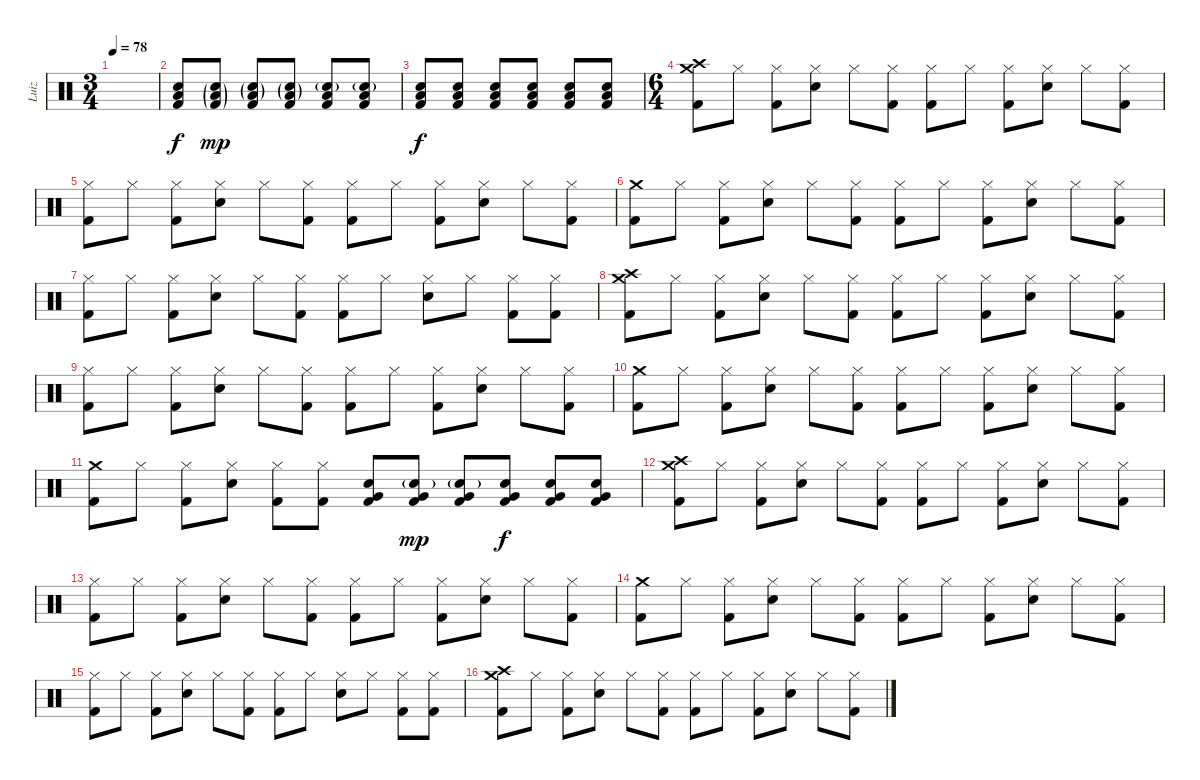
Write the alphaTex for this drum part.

\track ("Luiz" "Luiz") {instrument percussion}
\staff {score}
\articulation defaults
\ts (3 4)
\tempo 78
\clef neutral
\ks c
|
("Snare (hit) 2" "Low Tom (hit)" "Kick (hit) 2").8 ("Snare (hit) 2"{g} "Low Tom (hit)"{g} "Kick (hit) 2"{g}).8{dy mp} ("Snare (hit) 2"{g} "Low Tom (hit)"{g} "Kick (hit) 2").8 ("Snare (hit) 2"{g} "Low Tom (hit)"{g} "Kick (hit) 2").8 ("Snare (hit) 2"{g} "Low Tom (hit)" "Kick (hit) 2").8 ("Snare (hit) 2"{g} "Low Tom (hit)" "Kick (hit) 2").8 |
("Snare (hit) 2" "Low Tom (hit)" "Kick (hit) 2").8{dy f} ("Snare (hit) 2" "Low Tom (hit)" "Kick (hit) 2").8 ("Snare (hit) 2" "Low Tom (hit)" "Kick (hit) 2").8 ("Snare (hit) 2" "Low Tom (hit)" "Kick (hit) 2").8 ("Snare (hit) 2" "Low Tom (hit)" "Kick (hit) 2").8 ("Snare (hit) 2" "Low Tom (hit)" "Kick (hit) 2").8 |
\ts (6 4)
("Crash medium (hit)" "Crash high (hit)" "Kick (hit) 2").8 "Hi-Hat (closed)".8 ("Hi-Hat (closed)" "Kick (hit) 2").8 ("Hi-Hat (closed)" "Snare (hit) 2").8 "Hi-Hat (closed)".8 ("Hi-Hat (closed)" "Kick (hit) 2").8 ("Hi-Hat (closed)" "Kick (hit) 2").8 "Hi-Hat (closed)".8 ("Hi-Hat (closed)" "Kick (hit) 2").8 ("Hi-Hat (closed)" "Snare (hit) 2").8 "Hi-Hat (closed)".8 ("Hi-Hat (closed)" "Kick (hit) 2").8 |
("Hi-Hat (closed)" "Kick (hit) 2").8 "Hi-Hat (closed)".8 ("Hi-Hat (closed)" "Kick (hit) 2").8 ("Hi-Hat (closed)" "Snare (hit) 2").8 "Hi-Hat (closed)".8 ("Hi-Hat (closed)" "Kick (hit) 2").8 ("Hi-Hat (closed)" "Kick (hit) 2").8 "Hi-Hat (closed)".8 ("Hi-Hat (closed)" "Kick (hit) 2").8 ("Hi-Hat (closed)" "Snare (hit) 2").8 "Hi-Hat (closed)".8 ("Hi-Hat (closed)" "Kick (hit) 2").8 |
("Crash medium (hit)" "Kick (hit) 2").8 "Hi-Hat (closed)".8 ("Hi-Hat (closed)" "Kick (hit) 2").8 ("Hi-Hat (closed)" "Snare (hit) 2").8 "Hi-Hat (closed)".8 ("Hi-Hat (closed)" "Kick (hit) 2").8 ("Hi-Hat (closed)" "Kick (hit) 2").8 "Hi-Hat (closed)".8 ("Hi-Hat (closed)" "Kick (hit) 2").8 ("Hi-Hat (closed)" "Snare (hit) 2").8 "Hi-Hat (closed)".8 ("Hi-Hat (closed)" "Kick (hit) 2").8 |
("Hi-Hat (closed)" "Kick (hit) 2").8 "Hi-Hat (closed)".8 ("Hi-Hat (closed)" "Kick (hit) 2").8 ("Hi-Hat (closed)" "Snare (hit) 2").8 "Hi-Hat (closed)".8 ("Hi-Hat (closed)" "Kick (hit) 2").8 ("Hi-Hat (closed)" "Kick (hit) 2").8 "Hi-Hat (closed)".8 ("Hi-Hat (closed)" "Snare (hit) 2").8 "Hi-Hat (closed)".8 ("Hi-Hat (closed)" "Kick (hit) 2").8 ("Hi-Hat (closed)" "Kick (hit) 2").8 |
("Crash medium (hit)" "Crash high (hit)" "Kick (hit) 2").8 "Hi-Hat (closed)".8 ("Hi-Hat (closed)" "Kick (hit) 2").8 ("Hi-Hat (closed)" "Snare (hit) 2").8 "Hi-Hat (closed)".8 ("Hi-Hat (closed)" "Kick (hit) 2").8 ("Hi-Hat (closed)" "Kick (hit) 2").8 "Hi-Hat (closed)".8 ("Hi-Hat (closed)" "Kick (hit) 2").8 ("Hi-Hat (closed)" "Snare (hit) 2").8 "Hi-Hat (closed)".8 ("Hi-Hat (closed)" "Kick (hit) 2").8 |
("Hi-Hat (closed)" "Kick (hit) 2").8 "Hi-Hat (closed)".8 ("Hi-Hat (closed)" "Kick (hit) 2").8 ("Hi-Hat (closed)" "Snare (hit) 2").8 "Hi-Hat (closed)".8 ("Hi-Hat (closed)" "Kick (hit) 2").8 ("Hi-Hat (closed)" "Kick (hit) 2").8 "Hi-Hat (closed)".8 ("Hi-Hat (closed)" "Kick (hit) 2").8 ("Hi-Hat (closed)" "Snare (hit) 2").8 "Hi-Hat (closed)".8 ("Hi-Hat (closed)" "Kick (hit) 2").8 |
("Crash medium (hit)" "Kick (hit) 2").8 "Hi-Hat (closed)".8 ("Hi-Hat (closed)" "Kick (hit) 2").8 ("Hi-Hat (closed)" "Snare (hit) 2").8 "Hi-Hat (closed)".8 ("Hi-Hat (closed)" "Kick (hit) 2").8 ("Hi-Hat (closed)" "Kick (hit) 2").8 "Hi-Hat (closed)".8 ("Hi-Hat (closed)" "Kick (hit) 2").8 ("Hi-Hat (closed)" "Snare (hit) 2").8 "Hi-Hat (closed)".8 ("Hi-Hat (closed)" "Kick (hit) 2").8 |
("Crash medium (hit)" "Kick (hit) 2").8 "Hi-Hat (closed)".8 ("Hi-Hat (closed)" "Kick (hit) 2").8 ("Hi-Hat (closed)" "Snare (hit) 2").8 ("Hi-Hat (closed)" "Kick (hit) 2").8 ("Hi-Hat (closed)" "Kick (hit) 2").8 ("Snare (hit) 2" "Very Low Tom (hit)" "Kick (hit) 2").8 ("Snare (hit) 2"{g} "Very Low Tom (hit)" "Kick (hit) 2").8{dy mp} ("Snare (hit) 2"{g} "Very Low Tom (hit)" "Kick (hit) 2").8 ("Snare (hit) 2" "Very Low Tom (hit)" "Kick (hit) 2").8{dy f} ("Snare (hit) 2" "Very Low Tom (hit)" "Kick (hit) 2").8 ("Snare (hit) 2" "Very Low Tom (hit)" "Kick (hit) 2").8 |
("Crash medium (hit)" "Crash high (hit)" "Kick (hit) 2").8 "Hi-Hat (closed)".8 ("Hi-Hat (closed)" "Kick (hit) 2").8 ("Hi-Hat (closed)" "Snare (hit) 2").8 "Hi-Hat (closed)".8 ("Hi-Hat (closed)" "Kick (hit) 2").8 ("Hi-Hat (closed)" "Kick (hit) 2").8 "Hi-Hat (closed)".8 ("Hi-Hat (closed)" "Kick (hit) 2").8 ("Hi-Hat (closed)" "Snare (hit) 2").8 "Hi-Hat (closed)".8 ("Hi-Hat (closed)" "Kick (hit) 2").8 |
("Hi-Hat (closed)" "Kick (hit) 2").8 "Hi-Hat (closed)".8 ("Hi-Hat (closed)" "Kick (hit) 2").8 ("Hi-Hat (closed)" "Snare (hit) 2").8 "Hi-Hat (closed)".8 ("Hi-Hat (closed)" "Kick (hit) 2").8 ("Hi-Hat (closed)" "Kick (hit) 2").8 "Hi-Hat (closed)".8 ("Hi-Hat (closed)" "Kick (hit) 2").8 ("Hi-Hat (closed)" "Snare (hit) 2").8 "Hi-Hat (closed)".8 ("Hi-Hat (closed)" "Kick (hit) 2").8 |
("Crash medium (hit)" "Kick (hit) 2").8 "Hi-Hat (closed)".8 ("Hi-Hat (closed)" "Kick (hit) 2").8 ("Hi-Hat (closed)" "Snare (hit) 2").8 "Hi-Hat (closed)".8 ("Hi-Hat (closed)" "Kick (hit) 2").8 ("Hi-Hat (closed)" "Kick (hit) 2").8 "Hi-Hat (closed)".8 ("Hi-Hat (closed)" "Kick (hit) 2").8 ("Hi-Hat (closed)" "Snare (hit) 2").8 "Hi-Hat (closed)".8 ("Hi-Hat (closed)" "Kick (hit) 2").8 |
("Hi-Hat (closed)" "Kick (hit) 2").8 "Hi-Hat (closed)".8 ("Hi-Hat (closed)" "Kick (hit) 2").8 ("Hi-Hat (closed)" "Snare (hit) 2").8 "Hi-Hat (closed)".8 ("Hi-Hat (closed)" "Kick (hit) 2").8 ("Hi-Hat (closed)" "Kick (hit) 2").8 "Hi-Hat (closed)".8 ("Hi-Hat (closed)" "Snare (hit) 2").8 "Hi-Hat (closed)".8 ("Hi-Hat (closed)" "Kick (hit) 2").8 ("Hi-Hat (closed)" "Kick (hit) 2").8 |
("Crash medium (hit)" "Crash high (hit)" "Kick (hit) 2").8 "Hi-Hat (closed)".8 ("Hi-Hat (closed)" "Kick (hit) 2").8 ("Hi-Hat (closed)" "Snare (hit) 2").8 "Hi-Hat (closed)".8 ("Hi-Hat (closed)" "Kick (hit) 2").8 ("Hi-Hat (closed)" "Kick (hit) 2").8 "Hi-Hat (closed)".8 ("Hi-Hat (closed)" "Kick (hit) 2").8 ("Hi-Hat (closed)" "Snare (hit) 2").8 "Hi-Hat (closed)".8 ("Hi-Hat (closed)" "Kick (hit) 2").8
